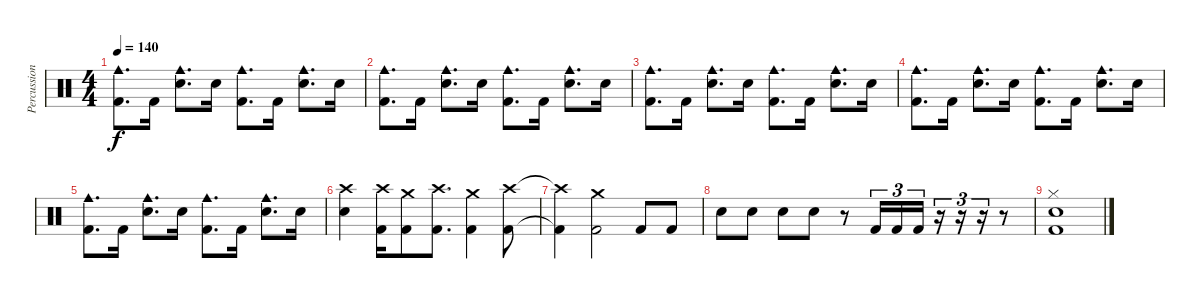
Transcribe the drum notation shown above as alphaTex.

\track ("Percussion" "Percussion") {instrument percussion}
\staff {score}
\articulation defaults
\ts (4 4)
\tempo 140
\clef neutral
\ks c
("Kick (hit) 2" "Cowbell medium (hit)").8{d dy f} "Kick (hit) 2".16 ("Electric Snare (hit)" "Cowbell medium (hit)").8{d} "Electric Snare (hit)".16 ("Kick (hit) 2" "Cowbell medium (hit)").8{d} "Kick (hit) 2".16 ("Electric Snare (hit)" "Cowbell medium (hit)").8{d} "Electric Snare (hit)".16 |
("Kick (hit) 2" "Cowbell medium (hit)").8{d} "Kick (hit) 2".16 ("Electric Snare (hit)" "Cowbell medium (hit)").8{d} "Electric Snare (hit)".16 ("Kick (hit) 2" "Cowbell medium (hit)").8{d} "Kick (hit) 2".16 ("Electric Snare (hit)" "Cowbell medium (hit)").8{d} "Electric Snare (hit)".16 |
("Kick (hit) 2" "Cowbell medium (hit)").8{d} "Kick (hit) 2".16 ("Electric Snare (hit)" "Cowbell medium (hit)").8{d} "Electric Snare (hit)".16 ("Kick (hit) 2" "Cowbell medium (hit)").8{d} "Kick (hit) 2".16 ("Electric Snare (hit)" "Cowbell medium (hit)").8{d} "Electric Snare (hit)".16 |
("Kick (hit) 2" "Cowbell medium (hit)").8{d} "Kick (hit) 2".16 ("Electric Snare (hit)" "Cowbell medium (hit)").8{d} "Electric Snare (hit)".16 ("Kick (hit) 2" "Cowbell medium (hit)").8{d} "Kick (hit) 2".16 ("Electric Snare (hit)" "Cowbell medium (hit)").8{d} "Electric Snare (hit)".16 |
("Kick (hit) 2" "Cowbell medium (hit)").8{d} "Kick (hit) 2".16 ("Electric Snare (hit)" "Cowbell medium (hit)").8{d} "Electric Snare (hit)".16 ("Kick (hit) 2" "Cowbell medium (hit)").8{d} "Kick (hit) 2".16 ("Electric Snare (hit)" "Cowbell medium (hit)").8{d} "Electric Snare (hit)".16 |
("Electric Snare (hit)" "Crash high (hit)").4 ("Kick (hit) 2" "Crash high (hit)").16 ("Kick (hit) 2" "Crash medium (hit)").8 ("Kick (hit) 2" "Crash high (hit)").8{d} ("Kick (hit) 2" "Crash medium (hit)").4 ("Kick (hit) 2" "Crash high (hit)").8 |
("Kick (hit) 2"{t} "Crash high (hit)"{t}).4 ("Kick (hit) 2" "Crash medium (hit)").2 "Kick (hit) 2".8 "Kick (hit) 2".8 |
"Electric Snare (hit)".8 "Electric Snare (hit)".8 "Electric Snare (hit)".8 "Electric Snare (hit)".8 r.8 "Kick (hit) 2".16{tu (3 2)} "Kick (hit) 2".16{tu (3 2)} "Kick (hit) 2".16{tu (3 2)} r.16{tu (3 2)} r.16{tu (3 2)} r.16{tu (3 2)} r.8 |
("Kick (hit) 2" "Electric Snare (hit)" "Hi-Hat (closed)").1
